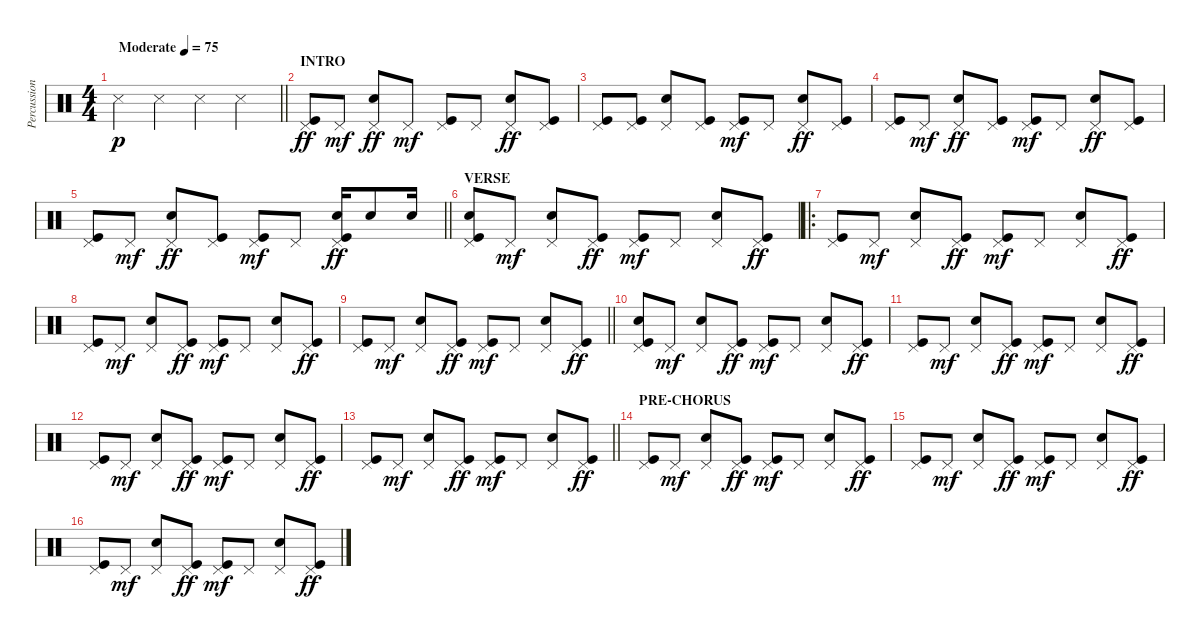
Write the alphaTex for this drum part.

\track ("Percussion" "Percussion") {instrument percussion}
\staff {score}
\articulation defaults
\ts (4 4)
\tempo (75 "Moderate")
\clef neutral
\barLineRight lightlight
\ks c "Snare (side stick) 3".4{dy p} "Snare (side stick) 3".4 "Snare (side stick) 3".4 "Snare (side stick) 3".4
|
\section ("" "INTRO")
("Pedal Hi-Hat (hit)" "Kick (hit)").8{dy ff} "Pedal Hi-Hat (hit)".8{dy mf} ("Pedal Hi-Hat (hit)" "Snare (hit) 2").8{dy ff} "Pedal Hi-Hat (hit)".8{dy mf} ("Pedal Hi-Hat (hit)" "Kick (hit)").8 "Pedal Hi-Hat (hit)".8 ("Pedal Hi-Hat (hit)" "Snare (hit) 2").8{dy ff} ("Pedal Hi-Hat (hit)" "Kick (hit)").8 |
("Pedal Hi-Hat (hit)" "Kick (hit)").8 ("Pedal Hi-Hat (hit)" "Kick (hit)").8 ("Pedal Hi-Hat (hit)" "Snare (hit) 2").8 ("Pedal Hi-Hat (hit)" "Kick (hit)").8 ("Pedal Hi-Hat (hit)" "Kick (hit)").8{dy mf} "Pedal Hi-Hat (hit)".8 ("Pedal Hi-Hat (hit)" "Snare (hit) 2").8{dy ff} ("Pedal Hi-Hat (hit)" "Kick (hit)").8 |
("Pedal Hi-Hat (hit)" "Kick (hit)").8 "Pedal Hi-Hat (hit)".8{dy mf} ("Pedal Hi-Hat (hit)" "Snare (hit) 2").8{dy ff} ("Pedal Hi-Hat (hit)" "Kick (hit)").8 ("Pedal Hi-Hat (hit)" "Kick (hit)").8{dy mf} "Pedal Hi-Hat (hit)".8 ("Pedal Hi-Hat (hit)" "Snare (hit) 2").8{dy ff} ("Pedal Hi-Hat (hit)" "Kick (hit)").8 |
\barLineRight lightlight
("Pedal Hi-Hat (hit)" "Kick (hit)").8 "Pedal Hi-Hat (hit)".8{dy mf} ("Pedal Hi-Hat (hit)" "Snare (hit) 2").8{dy ff} ("Pedal Hi-Hat (hit)" "Kick (hit)").8 ("Pedal Hi-Hat (hit)" "Kick (hit)").8{dy mf} "Pedal Hi-Hat (hit)".8 ("Pedal Hi-Hat (hit)" "Snare (hit) 2" "Kick (hit)").16{dy ff} "Snare (hit) 2".8 "Snare (hit) 2".16 |
\section ("" "VERSE")
("Pedal Hi-Hat (hit)" "Snare (hit) 2" "Kick (hit)").8 "Pedal Hi-Hat (hit)".8{dy mf} ("Pedal Hi-Hat (hit)" "Electric Snare (hit)").8 ("Pedal Hi-Hat (hit)" "Kick (hit)").8{dy ff} ("Pedal Hi-Hat (hit)" "Kick (hit)").8{dy mf} "Pedal Hi-Hat (hit)".8 ("Pedal Hi-Hat (hit)" "Electric Snare (hit)").8 ("Pedal Hi-Hat (hit)" "Kick (hit)").8{dy ff} |
\ro
("Pedal Hi-Hat (hit)" "Kick (hit)").8 "Pedal Hi-Hat (hit)".8{dy mf} ("Pedal Hi-Hat (hit)" "Electric Snare (hit)").8 ("Pedal Hi-Hat (hit)" "Kick (hit)").8{dy ff} ("Pedal Hi-Hat (hit)" "Kick (hit)").8{dy mf} "Pedal Hi-Hat (hit)".8 ("Pedal Hi-Hat (hit)" "Electric Snare (hit)").8 ("Pedal Hi-Hat (hit)" "Kick (hit)").8{dy ff} |
("Pedal Hi-Hat (hit)" "Kick (hit)").8 "Pedal Hi-Hat (hit)".8{dy mf} ("Pedal Hi-Hat (hit)" "Electric Snare (hit)").8 ("Pedal Hi-Hat (hit)" "Kick (hit)").8{dy ff} ("Pedal Hi-Hat (hit)" "Kick (hit)").8{dy mf} "Pedal Hi-Hat (hit)".8 ("Pedal Hi-Hat (hit)" "Electric Snare (hit)").8 ("Pedal Hi-Hat (hit)" "Kick (hit)").8{dy ff} |
\barLineRight lightlight
("Pedal Hi-Hat (hit)" "Kick (hit)").8 "Pedal Hi-Hat (hit)".8{dy mf} ("Pedal Hi-Hat (hit)" "Electric Snare (hit)").8 ("Pedal Hi-Hat (hit)" "Kick (hit)").8{dy ff} ("Pedal Hi-Hat (hit)" "Kick (hit)").8{dy mf} "Pedal Hi-Hat (hit)".8 ("Pedal Hi-Hat (hit)" "Electric Snare (hit)").8 ("Pedal Hi-Hat (hit)" "Kick (hit)").8{dy ff} |
("Pedal Hi-Hat (hit)" "Snare (hit) 2" "Kick (hit)").8 "Pedal Hi-Hat (hit)".8{dy mf} ("Pedal Hi-Hat (hit)" "Electric Snare (hit)").8 ("Pedal Hi-Hat (hit)" "Kick (hit)").8{dy ff} ("Pedal Hi-Hat (hit)" "Kick (hit)").8{dy mf} "Pedal Hi-Hat (hit)".8 ("Pedal Hi-Hat (hit)" "Electric Snare (hit)").8 ("Pedal Hi-Hat (hit)" "Kick (hit)").8{dy ff} |
("Pedal Hi-Hat (hit)" "Kick (hit)").8 "Pedal Hi-Hat (hit)".8{dy mf} ("Pedal Hi-Hat (hit)" "Electric Snare (hit)").8 ("Pedal Hi-Hat (hit)" "Kick (hit)").8{dy ff} ("Pedal Hi-Hat (hit)" "Kick (hit)").8{dy mf} "Pedal Hi-Hat (hit)".8 ("Pedal Hi-Hat (hit)" "Electric Snare (hit)").8 ("Pedal Hi-Hat (hit)" "Kick (hit)").8{dy ff} |
("Pedal Hi-Hat (hit)" "Kick (hit)").8 "Pedal Hi-Hat (hit)".8{dy mf} ("Pedal Hi-Hat (hit)" "Electric Snare (hit)").8 ("Pedal Hi-Hat (hit)" "Kick (hit)").8{dy ff} ("Pedal Hi-Hat (hit)" "Kick (hit)").8{dy mf} "Pedal Hi-Hat (hit)".8 ("Pedal Hi-Hat (hit)" "Electric Snare (hit)").8 ("Pedal Hi-Hat (hit)" "Kick (hit)").8{dy ff} |
\barLineRight lightlight
("Pedal Hi-Hat (hit)" "Kick (hit)").8 "Pedal Hi-Hat (hit)".8{dy mf} ("Pedal Hi-Hat (hit)" "Electric Snare (hit)").8 ("Pedal Hi-Hat (hit)" "Kick (hit)").8{dy ff} ("Pedal Hi-Hat (hit)" "Kick (hit)").8{dy mf} "Pedal Hi-Hat (hit)".8 ("Pedal Hi-Hat (hit)" "Electric Snare (hit)").8 ("Pedal Hi-Hat (hit)" "Kick (hit)").8{dy ff} |
\section ("" "PRE-CHORUS")
("Pedal Hi-Hat (hit)" "Kick (hit)").8 "Pedal Hi-Hat (hit)".8{dy mf} ("Pedal Hi-Hat (hit)" "Electric Snare (hit)").8 ("Pedal Hi-Hat (hit)" "Kick (hit)").8{dy ff} ("Pedal Hi-Hat (hit)" "Kick (hit)").8{dy mf} "Pedal Hi-Hat (hit)".8 ("Pedal Hi-Hat (hit)" "Electric Snare (hit)").8 ("Pedal Hi-Hat (hit)" "Kick (hit)").8{dy ff} |
("Pedal Hi-Hat (hit)" "Kick (hit)").8 "Pedal Hi-Hat (hit)".8{dy mf} ("Pedal Hi-Hat (hit)" "Electric Snare (hit)").8 ("Pedal Hi-Hat (hit)" "Kick (hit)").8{dy ff} ("Pedal Hi-Hat (hit)" "Kick (hit)").8{dy mf} "Pedal Hi-Hat (hit)".8 ("Pedal Hi-Hat (hit)" "Electric Snare (hit)").8 ("Pedal Hi-Hat (hit)" "Kick (hit)").8{dy ff} |
("Pedal Hi-Hat (hit)" "Kick (hit)").8 "Pedal Hi-Hat (hit)".8{dy mf} ("Pedal Hi-Hat (hit)" "Electric Snare (hit)").8 ("Pedal Hi-Hat (hit)" "Kick (hit)").8{dy ff} ("Pedal Hi-Hat (hit)" "Kick (hit)").8{dy mf} "Pedal Hi-Hat (hit)".8 ("Pedal Hi-Hat (hit)" "Electric Snare (hit)").8 ("Pedal Hi-Hat (hit)" "Kick (hit)").8{dy ff}
